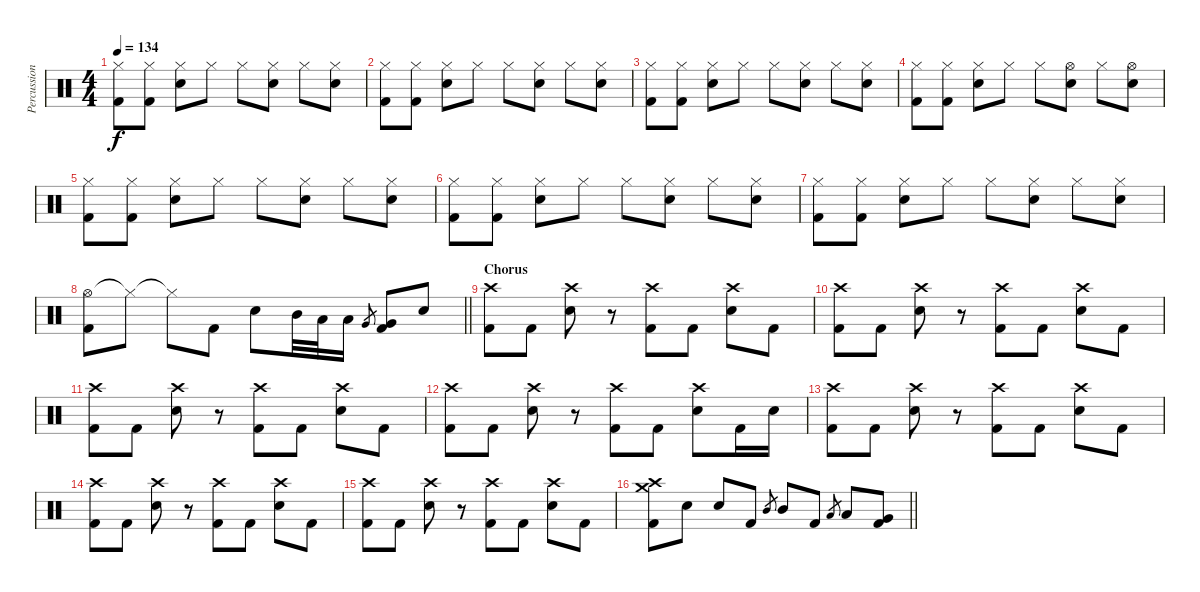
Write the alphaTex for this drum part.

\track ("Percussion" "Percussion") {instrument percussion}
\staff {score}
\articulation defaults
\ts (4 4)
\tempo 134
\clef neutral
\ks c
("Hi-Hat (closed)" "Kick (hit) 2").8{dy f} ("Hi-Hat (closed)" "Kick (hit) 2").8 ("Hi-Hat (closed)" "Snare (hit) 2").8 "Hi-Hat (closed)".8 "Hi-Hat (closed)".8 ("Hi-Hat (closed)" "Snare (hit) 2").8 "Hi-Hat (closed)".8 ("Hi-Hat (closed)" "Snare (hit) 2").8 |
("Hi-Hat (closed)" "Kick (hit) 2").8 ("Hi-Hat (closed)" "Kick (hit) 2").8 ("Hi-Hat (closed)" "Snare (hit) 2").8 "Hi-Hat (closed)".8 "Hi-Hat (closed)".8 ("Hi-Hat (closed)" "Snare (hit) 2").8 "Hi-Hat (closed)".8 ("Hi-Hat (closed)" "Snare (hit) 2").8 |
("Hi-Hat (closed)" "Kick (hit) 2").8 ("Hi-Hat (closed)" "Kick (hit) 2").8 ("Hi-Hat (closed)" "Snare (hit) 2").8 "Hi-Hat (closed)".8 "Hi-Hat (closed)".8 ("Hi-Hat (closed)" "Snare (hit) 2").8 "Hi-Hat (closed)".8 ("Hi-Hat (closed)" "Snare (hit) 2").8 |
("Hi-Hat (closed)" "Kick (hit) 2").8 ("Hi-Hat (closed)" "Kick (hit) 2").8 ("Hi-Hat (closed)" "Snare (hit) 2").8 "Hi-Hat (closed)".8 "Hi-Hat (closed)".8 ("Hi-Hat (open)" "Snare (hit) 2").8 "Hi-Hat (closed)".8 ("Hi-Hat (open)" "Snare (hit) 2").8 |
("Hi-Hat (closed)" "Kick (hit) 2").8 ("Hi-Hat (closed)" "Kick (hit) 2").8 ("Hi-Hat (closed)" "Snare (hit) 2").8 "Hi-Hat (closed)".8 "Hi-Hat (closed)".8 ("Hi-Hat (closed)" "Snare (hit) 2").8 "Hi-Hat (closed)".8 ("Hi-Hat (closed)" "Snare (hit) 2").8 |
("Hi-Hat (closed)" "Kick (hit) 2").8 ("Hi-Hat (closed)" "Kick (hit) 2").8 ("Hi-Hat (closed)" "Snare (hit) 2").8 "Hi-Hat (closed)".8 "Hi-Hat (closed)".8 ("Hi-Hat (closed)" "Snare (hit) 2").8 "Hi-Hat (closed)".8 ("Hi-Hat (closed)" "Snare (hit) 2").8 |
("Hi-Hat (closed)" "Kick (hit) 2").8 ("Hi-Hat (closed)" "Kick (hit) 2").8 ("Hi-Hat (closed)" "Snare (hit) 2").8 "Hi-Hat (closed)".8 "Hi-Hat (closed)".8 ("Hi-Hat (closed)" "Snare (hit) 2").8 "Hi-Hat (closed)".8 ("Hi-Hat (closed)" "Snare (hit) 2").8 |
\barLineRight lightlight
("Hi-Hat (open)" "Kick (hit) 2").8 "Hi-Hat (closed)"{t}.8 "Hi-Hat (closed)"{t}.8 "Kick (hit) 2".8 "Snare (hit) 2".8 "Mid Tom (hit)".32 "Low Tom (hit)".32 "Low Tom (hit)".16 "Very Low Tom (hit)".8{gr} ("Very Low Tom (hit)" "Kick (hit) 2").8 "Snare (hit) 2".8 |
\section ("" "Chorus")
("Crash high (hit)" "Kick (hit) 2").8 "Kick (hit) 2".8 ("Crash high (hit)" "Snare (hit) 2").8 r.8 ("Crash high (hit)" "Kick (hit) 2").8 "Kick (hit) 2".8 ("Crash high (hit)" "Snare (hit) 2").8 "Kick (hit) 2".8 |
("Crash high (hit)" "Kick (hit) 2").8 "Kick (hit) 2".8 ("Crash high (hit)" "Snare (hit) 2").8 r.8 ("Crash high (hit)" "Kick (hit) 2").8 "Kick (hit) 2".8 ("Crash high (hit)" "Snare (hit) 2").8 "Kick (hit) 2".8 |
("Crash high (hit)" "Kick (hit) 2").8 "Kick (hit) 2".8 ("Crash high (hit)" "Snare (hit) 2").8 r.8 ("Crash high (hit)" "Kick (hit) 2").8 "Kick (hit) 2".8 ("Crash high (hit)" "Snare (hit) 2").8 "Kick (hit) 2".8 |
("Crash high (hit)" "Kick (hit) 2").8 "Kick (hit) 2".8 ("Crash high (hit)" "Snare (hit) 2").8 r.8 ("Crash high (hit)" "Kick (hit) 2").8 "Kick (hit) 2".8 ("Crash high (hit)" "Snare (hit) 2").8 "Kick (hit) 2".16 "Snare (hit) 2".16 |
("Crash high (hit)" "Kick (hit) 2").8 "Kick (hit) 2".8 ("Crash high (hit)" "Snare (hit) 2").8 r.8 ("Crash high (hit)" "Kick (hit) 2").8 "Kick (hit) 2".8 ("Crash high (hit)" "Snare (hit) 2").8 "Kick (hit) 2".8 |
("Crash high (hit)" "Kick (hit) 2").8 "Kick (hit) 2".8 ("Crash high (hit)" "Snare (hit) 2").8 r.8 ("Crash high (hit)" "Kick (hit) 2").8 "Kick (hit) 2".8 ("Crash high (hit)" "Snare (hit) 2").8 "Kick (hit) 2".8 |
("Crash high (hit)" "Kick (hit) 2").8 "Kick (hit) 2".8 ("Crash high (hit)" "Snare (hit) 2").8 r.8 ("Crash high (hit)" "Kick (hit) 2").8 "Kick (hit) 2".8 ("Crash high (hit)" "Snare (hit) 2").8 "Kick (hit) 2".8 |
\barLineRight lightlight
("Crash medium (hit)" "Crash high (hit)" "Kick (hit) 2").8 "Snare (hit) 2".8 "Snare (hit) 2".8 "Kick (hit) 2".8 "Mid Tom (hit)".8{gr} "Mid Tom (hit)".8 "Kick (hit) 2".8 "Low Tom (hit)".8{gr} "Low Tom (hit)".8 ("Very Low Tom (hit)" "Kick (hit) 2").8
